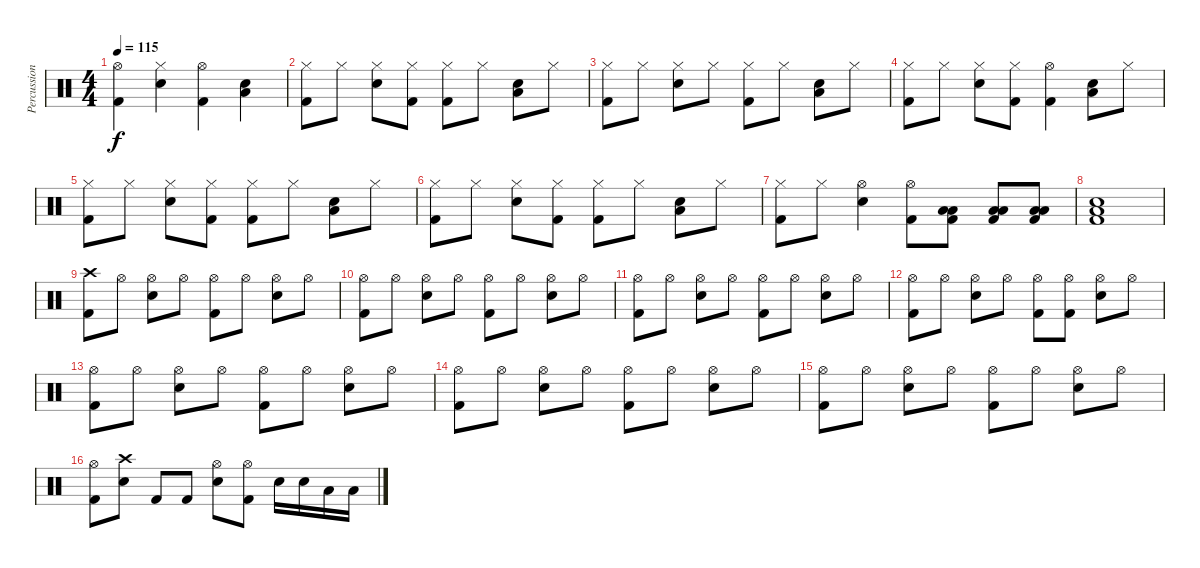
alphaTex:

\track ("Percussion" "Percussion") {instrument percussion}
\staff {score}
\articulation defaults
\ts (4 4)
\tempo 115
\clef neutral
\ks c
("Hi-Hat (open)" "Kick (hit) 2").4{dy f} ("Hi-Hat (closed)" "Electric Snare (hit)").4 ("Hi-Hat (open)" "Kick (hit) 2").4 ("Low Tom (hit)" "Electric Snare (hit)").4 |
("Hi-Hat (closed)" "Kick (hit) 2").8 "Hi-Hat (closed)".8 ("Hi-Hat (closed)" "Electric Snare (hit)").8 ("Hi-Hat (closed)" "Kick (hit) 2").8 ("Hi-Hat (closed)" "Kick (hit) 2").8 "Hi-Hat (closed)".8 ("Low Tom (hit)" "Electric Snare (hit)").8 "Hi-Hat (closed)".8 |
("Hi-Hat (closed)" "Kick (hit) 2").8 "Hi-Hat (closed)".8 ("Hi-Hat (closed)" "Electric Snare (hit)").8 "Hi-Hat (closed)".8 ("Hi-Hat (closed)" "Kick (hit) 2").8 "Hi-Hat (closed)".8 ("Low Tom (hit)" "Electric Snare (hit)").8 "Hi-Hat (closed)".8 |
("Hi-Hat (closed)" "Kick (hit) 2").8 "Hi-Hat (closed)".8 ("Hi-Hat (closed)" "Electric Snare (hit)").8 ("Hi-Hat (closed)" "Kick (hit) 2").8 ("Hi-Hat (open)" "Kick (hit) 2").4 ("Low Tom (hit)" "Electric Snare (hit)").8 "Hi-Hat (closed)".8 |
("Hi-Hat (closed)" "Kick (hit) 2").8 "Hi-Hat (closed)".8 ("Hi-Hat (closed)" "Electric Snare (hit)").8 ("Hi-Hat (closed)" "Kick (hit) 2").8 ("Hi-Hat (closed)" "Kick (hit) 2").8 "Hi-Hat (closed)".8 ("Low Tom (hit)" "Electric Snare (hit)").8 "Hi-Hat (closed)".8 |
("Hi-Hat (closed)" "Kick (hit) 2").8 "Hi-Hat (closed)".8 ("Hi-Hat (closed)" "Electric Snare (hit)").8 ("Hi-Hat (closed)" "Kick (hit) 2").8 ("Hi-Hat (closed)" "Kick (hit) 2").8 "Hi-Hat (closed)".8 ("Low Tom (hit)" "Electric Snare (hit)").8 "Hi-Hat (closed)".8 |
("Hi-Hat (closed)" "Kick (hit) 2").8 "Hi-Hat (closed)".8 ("Hi-Hat (open)" "Electric Snare (hit)").4 ("Hi-Hat (open)" "Kick (hit) 2").8 ("Low Tom (hit)" "Low Floor Tom (hit)" "Kick (hit) 2").8 ("Low Tom (hit)" "Low Floor Tom (hit)" "Kick (hit) 2").8 ("Low Tom (hit)" "Low Floor Tom (hit)" "Kick (hit) 2").8 |
("Low Floor Tom (hit)" "Electric Snare (hit)" "Kick (hit) 2").1 |
("Crash high (hit)" "Kick (hit) 2").8 "Hi-Hat (open)".8 ("Hi-Hat (open)" "Electric Snare (hit)").8 "Hi-Hat (open)".8 ("Hi-Hat (open)" "Kick (hit) 2").8 "Hi-Hat (open)".8 ("Hi-Hat (open)" "Electric Snare (hit)").8 "Hi-Hat (open)".8 |
("Hi-Hat (open)" "Kick (hit) 2").8 "Hi-Hat (open)".8 ("Hi-Hat (open)" "Electric Snare (hit)").8 "Hi-Hat (open)".8 ("Hi-Hat (open)" "Kick (hit) 2").8 "Hi-Hat (open)".8 ("Hi-Hat (open)" "Electric Snare (hit)").8 "Hi-Hat (open)".8 |
("Hi-Hat (open)" "Kick (hit) 2").8 "Hi-Hat (open)".8 ("Hi-Hat (open)" "Electric Snare (hit)").8 "Hi-Hat (open)".8 ("Hi-Hat (open)" "Kick (hit) 2").8 "Hi-Hat (open)".8 ("Hi-Hat (open)" "Electric Snare (hit)").8 "Hi-Hat (open)".8 |
("Hi-Hat (open)" "Kick (hit) 2").8 "Hi-Hat (open)".8 ("Hi-Hat (open)" "Electric Snare (hit)").8 "Hi-Hat (open)".8 ("Hi-Hat (open)" "Kick (hit) 2").8 ("Hi-Hat (open)" "Kick (hit) 2").8 ("Hi-Hat (open)" "Electric Snare (hit)").8 "Hi-Hat (open)".8 |
("Hi-Hat (open)" "Kick (hit) 2").8 "Hi-Hat (open)".8 ("Hi-Hat (open)" "Electric Snare (hit)").8 "Hi-Hat (open)".8 ("Hi-Hat (open)" "Kick (hit) 2").8 "Hi-Hat (open)".8 ("Hi-Hat (open)" "Electric Snare (hit)").8 "Hi-Hat (open)".8 |
("Hi-Hat (open)" "Kick (hit) 2").8 "Hi-Hat (open)".8 ("Hi-Hat (open)" "Electric Snare (hit)").8 "Hi-Hat (open)".8 ("Hi-Hat (open)" "Kick (hit) 2").8 "Hi-Hat (open)".8 ("Hi-Hat (open)" "Electric Snare (hit)").8 "Hi-Hat (open)".8 |
("Hi-Hat (open)" "Kick (hit) 2").8 "Hi-Hat (open)".8 ("Hi-Hat (open)" "Electric Snare (hit)").8 "Hi-Hat (open)".8 ("Hi-Hat (open)" "Kick (hit) 2").8 "Hi-Hat (open)".8 ("Hi-Hat (open)" "Electric Snare (hit)").8 "Hi-Hat (open)".8 |
("Hi-Hat (open)" "Kick (hit) 2").8 ("Crash high (hit)" "Electric Snare (hit)").8 "Kick (hit) 2".8 "Kick (hit) 2".8 ("Hi-Hat (open)" "Electric Snare (hit)").8 ("Hi-Hat (open)" "Kick (hit) 2").8 "Electric Snare (hit)".16 "Electric Snare (hit)".16 "Low Tom (hit)".16 "Low Floor Tom (hit)".16
